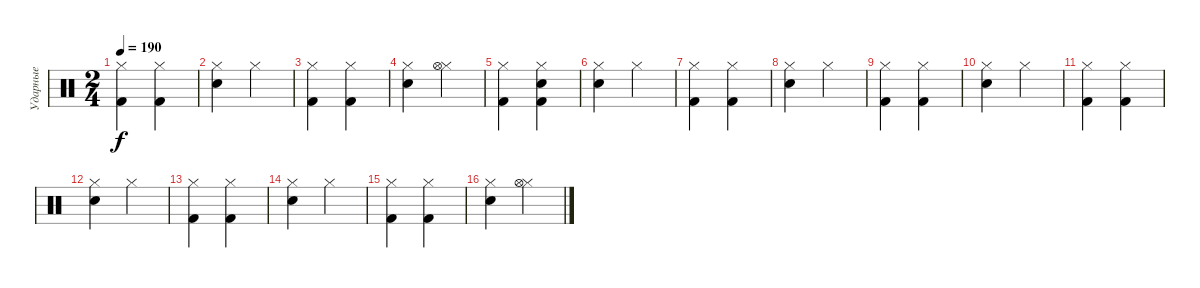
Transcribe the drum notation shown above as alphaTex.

\track ("Ударные" "Ударные") {instrument percussion}
\staff {score}
\articulation defaults
\ts (2 4)
\tempo 190
\clef neutral
\ks c
("Hi-Hat (closed)" "Kick (hit) 2").4{dy f} ("Hi-Hat (closed)" "Kick (hit) 2").4 |
("Hi-Hat (closed)" "Snare (hit) 2").4 "Hi-Hat (closed)".4 |
("Hi-Hat (closed)" "Kick (hit) 2").4 ("Hi-Hat (closed)" "Kick (hit) 2").4 |
("Hi-Hat (closed)" "Snare (hit) 2").4 ("Hi-Hat (closed)" "Hi-Hat (open)").4 |
("Kick (hit) 2" "Hi-Hat (closed)").4 ("Hi-Hat (closed)" "Kick (hit) 2" "Snare (hit)").4 |
("Hi-Hat (closed)" "Snare (hit) 2").4 "Hi-Hat (closed)".4 |
("Hi-Hat (closed)" "Kick (hit) 2").4 ("Hi-Hat (closed)" "Kick (hit) 2").4 |
("Hi-Hat (closed)" "Snare (hit) 2").4 "Hi-Hat (closed)".4 |
("Hi-Hat (closed)" "Kick (hit) 2").4 ("Hi-Hat (closed)" "Kick (hit) 2").4 |
("Hi-Hat (closed)" "Snare (hit) 2").4 "Hi-Hat (closed)".4 |
("Hi-Hat (closed)" "Kick (hit) 2").4 ("Hi-Hat (closed)" "Kick (hit) 2").4 |
("Hi-Hat (closed)" "Snare (hit) 2").4 "Hi-Hat (closed)".4 |
("Hi-Hat (closed)" "Kick (hit) 2").4 ("Hi-Hat (closed)" "Kick (hit) 2").4 |
("Hi-Hat (closed)" "Snare (hit) 2").4 "Hi-Hat (closed)".4 |
("Hi-Hat (closed)" "Kick (hit) 2").4 ("Hi-Hat (closed)" "Kick (hit) 2").4 |
("Hi-Hat (closed)" "Snare (hit) 2").4 ("Hi-Hat (closed)" "Hi-Hat (open)").4
